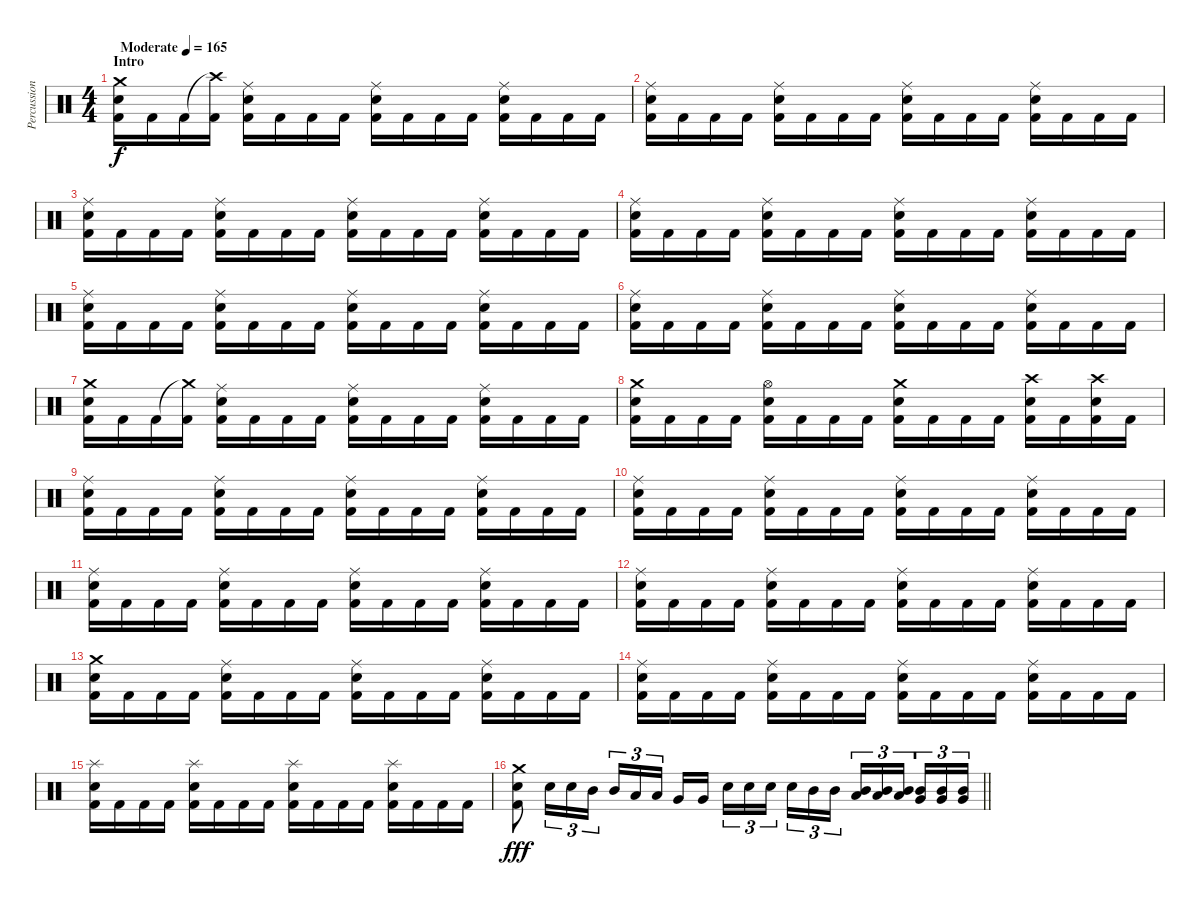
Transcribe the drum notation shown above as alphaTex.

\track ("Percussion" "Percussion") {instrument percussion}
\staff {score}
\articulation defaults
\ts (4 4)
\section ("" "Intro")
\tempo (165 "Moderate")
\clef neutral
\ks c
("Crash medium (hit)" "Electric Snare (hit)" "Kick (hit) 2").16{dy f} "Kick (hit) 2".16 "Kick (hit) 2".16 ("Crash high (hit)"{t} "Kick (hit) 2").16 ("Ride (middle)" "Electric Snare (hit)" "Kick (hit) 2").16 "Kick (hit) 2".16 "Kick (hit) 2".16 "Kick (hit) 2".16 ("Ride (middle)" "Electric Snare (hit)" "Kick (hit) 2").16 "Kick (hit) 2".16 "Kick (hit) 2".16 "Kick (hit) 2".16 ("Ride (middle)" "Electric Snare (hit)" "Kick (hit) 2").16 "Kick (hit) 2".16 "Kick (hit) 2".16 "Kick (hit) 2".16 |
("Ride (middle)" "Electric Snare (hit)" "Kick (hit) 2").16 "Kick (hit) 2".16 "Kick (hit) 2".16 "Kick (hit) 2".16 ("Ride (middle)" "Electric Snare (hit)" "Kick (hit) 2").16 "Kick (hit) 2".16 "Kick (hit) 2".16 "Kick (hit) 2".16 ("Ride (middle)" "Electric Snare (hit)" "Kick (hit) 2").16 "Kick (hit) 2".16 "Kick (hit) 2".16 "Kick (hit) 2".16 ("Ride (middle)" "Electric Snare (hit)" "Kick (hit) 2").16 "Kick (hit) 2".16 "Kick (hit) 2".16 "Kick (hit) 2".16 |
("Ride (middle)" "Electric Snare (hit)" "Kick (hit) 2").16 "Kick (hit) 2".16 "Kick (hit) 2".16 "Kick (hit) 2".16 ("Ride (middle)" "Electric Snare (hit)" "Kick (hit) 2").16 "Kick (hit) 2".16 "Kick (hit) 2".16 "Kick (hit) 2".16 ("Ride (middle)" "Electric Snare (hit)" "Kick (hit) 2").16 "Kick (hit) 2".16 "Kick (hit) 2".16 "Kick (hit) 2".16 ("Ride (middle)" "Electric Snare (hit)" "Kick (hit) 2").16 "Kick (hit) 2".16 "Kick (hit) 2".16 "Kick (hit) 2".16 |
("Ride (middle)" "Electric Snare (hit)" "Kick (hit) 2").16 "Kick (hit) 2".16 "Kick (hit) 2".16 "Kick (hit) 2".16 ("Ride (middle)" "Electric Snare (hit)" "Kick (hit) 2").16 "Kick (hit) 2".16 "Kick (hit) 2".16 "Kick (hit) 2".16 ("Ride (middle)" "Electric Snare (hit)" "Kick (hit) 2").16 "Kick (hit) 2".16 "Kick (hit) 2".16 "Kick (hit) 2".16 ("Ride (middle)" "Electric Snare (hit)" "Kick (hit) 2").16 "Kick (hit) 2".16 "Kick (hit) 2".16 "Kick (hit) 2".16 |
("Ride (middle)" "Electric Snare (hit)" "Kick (hit) 2").16 "Kick (hit) 2".16 "Kick (hit) 2".16 "Kick (hit) 2".16 ("Ride (middle)" "Electric Snare (hit)" "Kick (hit) 2").16 "Kick (hit) 2".16 "Kick (hit) 2".16 "Kick (hit) 2".16 ("Ride (middle)" "Electric Snare (hit)" "Kick (hit) 2").16 "Kick (hit) 2".16 "Kick (hit) 2".16 "Kick (hit) 2".16 ("Ride (middle)" "Electric Snare (hit)" "Kick (hit) 2").16 "Kick (hit) 2".16 "Kick (hit) 2".16 "Kick (hit) 2".16 |
("Ride (middle)" "Electric Snare (hit)" "Kick (hit) 2").16 "Kick (hit) 2".16 "Kick (hit) 2".16 "Kick (hit) 2".16 ("Ride (middle)" "Electric Snare (hit)" "Kick (hit) 2").16 "Kick (hit) 2".16 "Kick (hit) 2".16 "Kick (hit) 2".16 ("Ride (middle)" "Electric Snare (hit)" "Kick (hit) 2").16 "Kick (hit) 2".16 "Kick (hit) 2".16 "Kick (hit) 2".16 ("Ride (middle)" "Electric Snare (hit)" "Kick (hit) 2").16 "Kick (hit) 2".16 "Kick (hit) 2".16 "Kick (hit) 2".16 |
("Crash medium (hit)" "Electric Snare (hit)" "Kick (hit) 2").16 "Kick (hit) 2".16 "Kick (hit) 2".16 ("Crash medium (hit)"{t} "Kick (hit) 2").16 ("Ride (middle)" "Electric Snare (hit)" "Kick (hit) 2").16 "Kick (hit) 2".16 "Kick (hit) 2".16 "Kick (hit) 2".16 ("Ride (middle)" "Electric Snare (hit)" "Kick (hit) 2").16 "Kick (hit) 2".16 "Kick (hit) 2".16 "Kick (hit) 2".16 ("Ride (middle)" "Electric Snare (hit)" "Kick (hit) 2").16 "Kick (hit) 2".16 "Kick (hit) 2".16 "Kick (hit) 2".16 |
("Crash medium (hit)" "Electric Snare (hit)" "Kick (hit) 2").16 "Kick (hit) 2".16 "Kick (hit) 2".16 "Kick (hit) 2".16 ("Hi-Hat (open)" "Electric Snare (hit)" "Kick (hit) 2").16 "Kick (hit) 2".16 "Kick (hit) 2".16 "Kick (hit) 2".16 ("Crash medium (hit)" "Electric Snare (hit)" "Kick (hit) 2").16 "Kick (hit) 2".16 "Kick (hit) 2".16 "Kick (hit) 2".16 ("Crash high (hit)" "Electric Snare (hit)" "Kick (hit) 2").16 "Kick (hit) 2".16 ("Crash high (hit)" "Electric Snare (hit)" "Kick (hit) 2").16 "Kick (hit) 2".16 |
("Ride (middle)" "Electric Snare (hit)" "Kick (hit) 2").16 "Kick (hit) 2".16 "Kick (hit) 2".16 "Kick (hit) 2".16 ("Ride (middle)" "Electric Snare (hit)" "Kick (hit) 2").16 "Kick (hit) 2".16 "Kick (hit) 2".16 "Kick (hit) 2".16 ("Ride (middle)" "Electric Snare (hit)" "Kick (hit) 2").16 "Kick (hit) 2".16 "Kick (hit) 2".16 "Kick (hit) 2".16 ("Ride (middle)" "Electric Snare (hit)" "Kick (hit) 2").16 "Kick (hit) 2".16 "Kick (hit) 2".16 "Kick (hit) 2".16 |
("Ride (middle)" "Electric Snare (hit)" "Kick (hit) 2").16 "Kick (hit) 2".16 "Kick (hit) 2".16 "Kick (hit) 2".16 ("Ride (middle)" "Electric Snare (hit)" "Kick (hit) 2").16 "Kick (hit) 2".16 "Kick (hit) 2".16 "Kick (hit) 2".16 ("Ride (middle)" "Electric Snare (hit)" "Kick (hit) 2").16 "Kick (hit) 2".16 "Kick (hit) 2".16 "Kick (hit) 2".16 ("Ride (middle)" "Electric Snare (hit)" "Kick (hit) 2").16 "Kick (hit) 2".16 "Kick (hit) 2".16 "Kick (hit) 2".16 |
("Ride (middle)" "Electric Snare (hit)" "Kick (hit) 2").16 "Kick (hit) 2".16 "Kick (hit) 2".16 "Kick (hit) 2".16 ("Ride (middle)" "Electric Snare (hit)" "Kick (hit) 2").16 "Kick (hit) 2".16 "Kick (hit) 2".16 "Kick (hit) 2".16 ("Ride (middle)" "Electric Snare (hit)" "Kick (hit) 2").16 "Kick (hit) 2".16 "Kick (hit) 2".16 "Kick (hit) 2".16 ("Ride (middle)" "Electric Snare (hit)" "Kick (hit) 2").16 "Kick (hit) 2".16 "Kick (hit) 2".16 "Kick (hit) 2".16 |
("Ride (middle)" "Electric Snare (hit)" "Kick (hit) 2").16 "Kick (hit) 2".16 "Kick (hit) 2".16 "Kick (hit) 2".16 ("Ride (middle)" "Electric Snare (hit)" "Kick (hit) 2").16 "Kick (hit) 2".16 "Kick (hit) 2".16 "Kick (hit) 2".16 ("Ride (middle)" "Electric Snare (hit)" "Kick (hit) 2").16 "Kick (hit) 2".16 "Kick (hit) 2".16 "Kick (hit) 2".16 ("Ride (middle)" "Electric Snare (hit)" "Kick (hit) 2").16 "Kick (hit) 2".16 "Kick (hit) 2".16 "Kick (hit) 2".16 |
("Crash medium (hit)" "Electric Snare (hit)" "Kick (hit) 2").16 "Kick (hit) 2".16 "Kick (hit) 2".16 "Kick (hit) 2".16 ("Ride (middle)" "Electric Snare (hit)" "Kick (hit) 2").16 "Kick (hit) 2".16 "Kick (hit) 2".16 "Kick (hit) 2".16 ("Ride (middle)" "Electric Snare (hit)" "Kick (hit) 2").16 "Kick (hit) 2".16 "Kick (hit) 2".16 "Kick (hit) 2".16 ("Ride (middle)" "Electric Snare (hit)" "Kick (hit) 2").16 "Kick (hit) 2".16 "Kick (hit) 2".16 "Kick (hit) 2".16 |
("Ride (middle)" "Electric Snare (hit)" "Kick (hit) 2").16 "Kick (hit) 2".16 "Kick (hit) 2".16 "Kick (hit) 2".16 ("Ride (middle)" "Electric Snare (hit)" "Kick (hit) 2").16 "Kick (hit) 2".16 "Kick (hit) 2".16 "Kick (hit) 2".16 ("Ride (middle)" "Electric Snare (hit)" "Kick (hit) 2").16 "Kick (hit) 2".16 "Kick (hit) 2".16 "Kick (hit) 2".16 ("Ride (middle)" "Electric Snare (hit)" "Kick (hit) 2").16 "Kick (hit) 2".16 "Kick (hit) 2".16 "Kick (hit) 2".16 |
("Splash (hit)" "Electric Snare (hit)" "Kick (hit) 2").16 "Kick (hit) 2".16 "Kick (hit) 2".16 "Kick (hit) 2".16 ("Splash (hit)" "Electric Snare (hit)" "Kick (hit) 2").16 "Kick (hit) 2".16 "Kick (hit) 2".16 "Kick (hit) 2".16 ("Splash (hit)" "Electric Snare (hit)" "Kick (hit) 2").16 "Kick (hit) 2".16 "Kick (hit) 2".16 "Kick (hit) 2".16 ("Splash (hit)" "Electric Snare (hit)" "Kick (hit) 2").16 "Kick (hit) 2".16 "Kick (hit) 2".16 "Kick (hit) 2".16 |
\barLineRight lightlight
("Crash medium (hit)" "Electric Snare (hit)" "Kick (hit) 2").8{dy fff} "Electric Snare (hit)".16{tu (3 2)} "Electric Snare (hit)".16{tu (3 2)} "Mid Tom (hit)".16{tu (3 2)} "Mid Tom (hit)".16{tu (3 2)} "Low Tom (hit)".16{tu (3 2)} "Low Tom (hit)".16{tu (3 2) beam splitsecondary} "Very Low Tom (hit)".16 "Very Low Tom (hit)".16 "Electric Snare (hit)".16{tu (3 2)} "Electric Snare (hit)".16{tu (3 2)} "Electric Snare (hit)".16{tu (3 2) beam splitsecondary} "Electric Snare (hit)".16{tu (3 2)} "Mid Tom (hit)".16{tu (3 2)} "Mid Tom (hit)".16{tu (3 2)} ("Mid Tom (hit)" "Low Tom (hit)").16{tu (3 2)} ("Mid Tom (hit)" "Low Tom (hit)").16{tu (3 2)} ("Mid Tom (hit)" "Low Tom (hit)").16{tu (3 2) beam splitsecondary} ("Mid Tom (hit)" "Very Low Tom (hit)").16{tu (3 2)} ("Mid Tom (hit)" "Very Low Tom (hit)").16{tu (3 2)} ("Mid Tom (hit)" "Very Low Tom (hit)").16{tu (3 2)}
